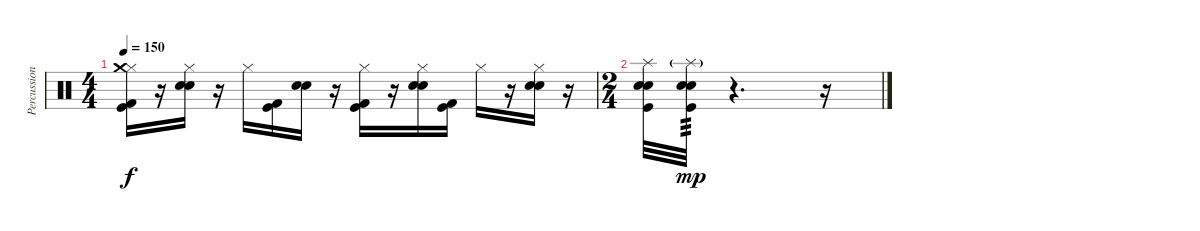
\track ("Percussion" "Percussion") {instrument percussion}
\staff {score}
\articulation defaults
\ts (4 4)
\tempo 150
\clef neutral
\ks c
("Hi-Hat (closed)" "Kick (hit) 2" "Kick (hit)" "Crash medium (hit)").16{dy f} r.16 ("Hi-Hat (closed)" "Electric Snare (hit)" "Snare (hit) 2").16 r.16 "Hi-Hat (closed)".16 ("Kick (hit) 2" "Kick (hit)").16 ("Electric Snare (hit)" "Snare (hit) 2").16 r.16 ("Hi-Hat (closed)" "Kick (hit) 2" "Kick (hit)").16 r.16 ("Hi-Hat (closed)" "Electric Snare (hit)" "Snare (hit) 2").16 ("Kick (hit) 2" "Kick (hit)").16 "Hi-Hat (closed)".16 r.16 ("Hi-Hat (closed)" "Electric Snare (hit)" "Snare (hit) 2").16 r.16 |
\ts (2 4)
("Kick (hit)" "Electric Snare (hit)" "Snare (hit) 2" "Splash (hit)").32 ("Kick (hit)" "Electric Snare (hit)" "Snare (hit) 2" "Splash (hit)"{g}).32{tp 3 dy mp} r.4{d} r.16
